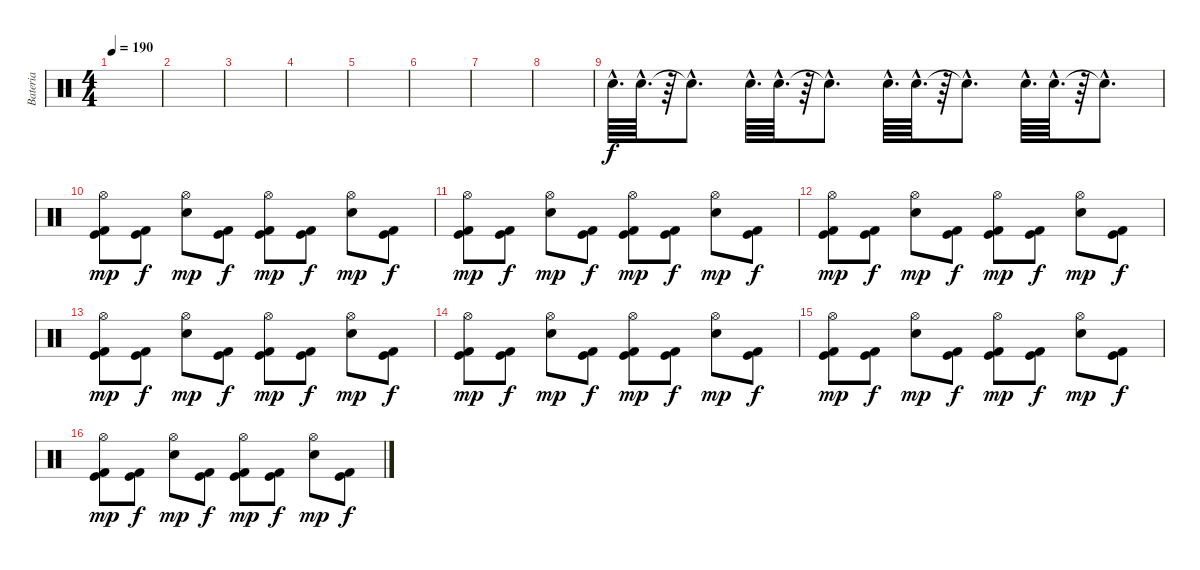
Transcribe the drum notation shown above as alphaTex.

\track ("Bateria" "Bateria") {instrument percussion}
\staff {score}
\articulation defaults
\ts (4 4)
\tempo 190
\clef neutral
\ks c
|
|
|
|
|
|
|
|
"Electric Snare (hit)"{hac}.64{d} "Electric Snare (hit)"{hac}.64{d} r.64 "Snare (hit)"{hac t}.8{d} "Electric Snare (hit)"{hac}.64{d} "Electric Snare (hit)"{hac}.64{d} r.64 "Electric Snare (hit)"{hac t}.8{d} "Electric Snare (hit)"{hac}.64{d} "Electric Snare (hit)"{hac}.64{d} r.64 "Electric Snare (hit)"{hac t}.8{d} "Electric Snare (hit)"{hac}.64{d} "Electric Snare (hit)"{hac}.64{d} r.64 "Electric Snare (hit)"{hac t}.8{d} |
("Kick (hit) 2" "Kick (hit)" "Hi-Hat (open)").8{dy mp} ("Kick (hit)" "Kick (hit) 2").8{dy f} ("Electric Snare (hit)" "Hi-Hat (open)").8{dy mp} ("Kick (hit) 2" "Kick (hit)").8{dy f} ("Kick (hit) 2" "Kick (hit)" "Hi-Hat (open)").8{dy mp} ("Kick (hit)" "Kick (hit) 2").8{dy f} ("Electric Snare (hit)" "Hi-Hat (open)").8{dy mp} ("Kick (hit)" "Kick (hit) 2").8{dy f} |
("Kick (hit) 2" "Kick (hit)" "Hi-Hat (open)").8{dy mp} ("Kick (hit)" "Kick (hit) 2").8{dy f} ("Electric Snare (hit)" "Hi-Hat (open)").8{dy mp} ("Kick (hit) 2" "Kick (hit)").8{dy f} ("Kick (hit) 2" "Kick (hit)" "Hi-Hat (open)").8{dy mp} ("Kick (hit)" "Kick (hit) 2").8{dy f} ("Electric Snare (hit)" "Hi-Hat (open)").8{dy mp} ("Kick (hit)" "Kick (hit) 2").8{dy f} |
("Kick (hit) 2" "Kick (hit)" "Hi-Hat (open)").8{dy mp} ("Kick (hit)" "Kick (hit) 2").8{dy f} ("Electric Snare (hit)" "Hi-Hat (open)").8{dy mp} ("Kick (hit) 2" "Kick (hit)").8{dy f} ("Kick (hit) 2" "Kick (hit)" "Hi-Hat (open)").8{dy mp} ("Kick (hit)" "Kick (hit) 2").8{dy f} ("Electric Snare (hit)" "Hi-Hat (open)").8{dy mp} ("Kick (hit)" "Kick (hit) 2").8{dy f} |
("Kick (hit) 2" "Kick (hit)" "Hi-Hat (open)").8{dy mp} ("Kick (hit)" "Kick (hit) 2").8{dy f} ("Electric Snare (hit)" "Hi-Hat (open)").8{dy mp} ("Kick (hit) 2" "Kick (hit)").8{dy f} ("Kick (hit) 2" "Kick (hit)" "Hi-Hat (open)").8{dy mp} ("Kick (hit)" "Kick (hit) 2").8{dy f} ("Electric Snare (hit)" "Hi-Hat (open)").8{dy mp} ("Kick (hit)" "Kick (hit) 2").8{dy f} |
("Kick (hit) 2" "Kick (hit)" "Hi-Hat (open)").8{dy mp} ("Kick (hit)" "Kick (hit) 2").8{dy f} ("Electric Snare (hit)" "Hi-Hat (open)").8{dy mp} ("Kick (hit) 2" "Kick (hit)").8{dy f} ("Kick (hit) 2" "Kick (hit)" "Hi-Hat (open)").8{dy mp} ("Kick (hit)" "Kick (hit) 2").8{dy f} ("Electric Snare (hit)" "Hi-Hat (open)").8{dy mp} ("Kick (hit)" "Kick (hit) 2").8{dy f} |
("Kick (hit) 2" "Kick (hit)" "Hi-Hat (open)").8{dy mp} ("Kick (hit)" "Kick (hit) 2").8{dy f} ("Electric Snare (hit)" "Hi-Hat (open)").8{dy mp} ("Kick (hit) 2" "Kick (hit)").8{dy f} ("Kick (hit) 2" "Kick (hit)" "Hi-Hat (open)").8{dy mp} ("Kick (hit)" "Kick (hit) 2").8{dy f} ("Electric Snare (hit)" "Hi-Hat (open)").8{dy mp} ("Kick (hit)" "Kick (hit) 2").8{dy f} |
("Kick (hit) 2" "Kick (hit)" "Hi-Hat (open)").8{dy mp} ("Kick (hit)" "Kick (hit) 2").8{dy f} ("Electric Snare (hit)" "Hi-Hat (open)").8{dy mp} ("Kick (hit) 2" "Kick (hit)").8{dy f} ("Kick (hit) 2" "Kick (hit)" "Hi-Hat (open)").8{dy mp} ("Kick (hit)" "Kick (hit) 2").8{dy f} ("Electric Snare (hit)" "Hi-Hat (open)").8{dy mp} ("Kick (hit)" "Kick (hit) 2").8{dy f}
